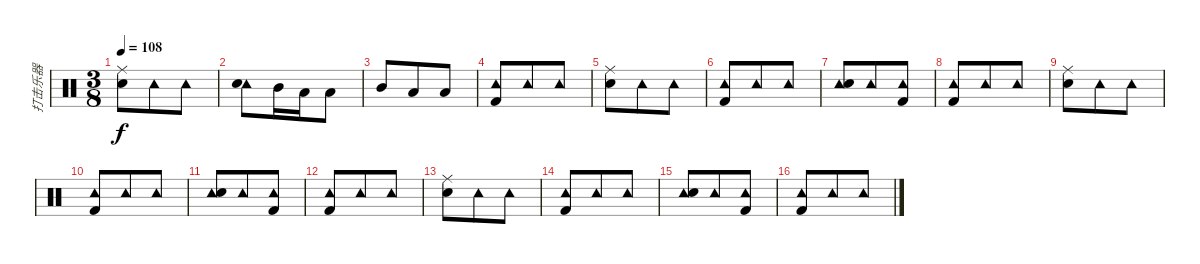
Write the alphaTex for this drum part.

\track ("打击乐器" "打击乐器") {instrument percussion}
\staff {score}
\articulation defaults
\ts (3 8)
\tempo 108
\clef neutral
\ks c
("Ride (middle)" "Snare (hit) 2").8{dy f} "Tambourine (hit)".8 "Tambourine (hit)".8 |
("Tambourine (hit)" "Snare (hit) 2").8 "Mid Tom (hit)".16 "Low Tom (hit)".16 "Low Floor Tom (hit)".8 |
"Mid Tom (hit)".8 "Low Tom (hit)".8 "Low Floor Tom (hit)".8 |
("Tambourine (hit)" "Kick (hit) 2").8 "Tambourine (hit)".8 "Tambourine (hit)".8 |
("Ride (middle)" "Snare (hit) 2").8 "Tambourine (hit)".8 "Tambourine (hit)".8 |
("Tambourine (hit)" "Kick (hit) 2").8 "Tambourine (hit)".8 "Tambourine (hit)".8 |
("Tambourine (hit)" "Snare (hit) 2").8 "Tambourine (hit)".8 ("Tambourine (hit)" "Kick (hit) 2").8 |
("Tambourine (hit)" "Kick (hit) 2").8 "Tambourine (hit)".8 "Tambourine (hit)".8 |
("Ride (middle)" "Snare (hit) 2").8 "Tambourine (hit)".8 "Tambourine (hit)".8 |
("Tambourine (hit)" "Kick (hit) 2").8 "Tambourine (hit)".8 "Tambourine (hit)".8 |
("Tambourine (hit)" "Snare (hit) 2").8 "Tambourine (hit)".8 ("Tambourine (hit)" "Kick (hit) 2").8 |
("Tambourine (hit)" "Kick (hit) 2").8 "Tambourine (hit)".8 "Tambourine (hit)".8 |
("Ride (middle)" "Snare (hit) 2").8 "Tambourine (hit)".8 "Tambourine (hit)".8 |
("Tambourine (hit)" "Kick (hit) 2").8 "Tambourine (hit)".8 "Tambourine (hit)".8 |
("Tambourine (hit)" "Snare (hit) 2").8 "Tambourine (hit)".8 ("Tambourine (hit)" "Kick (hit) 2").8 |
("Tambourine (hit)" "Kick (hit) 2").8 "Tambourine (hit)".8 "Tambourine (hit)".8
